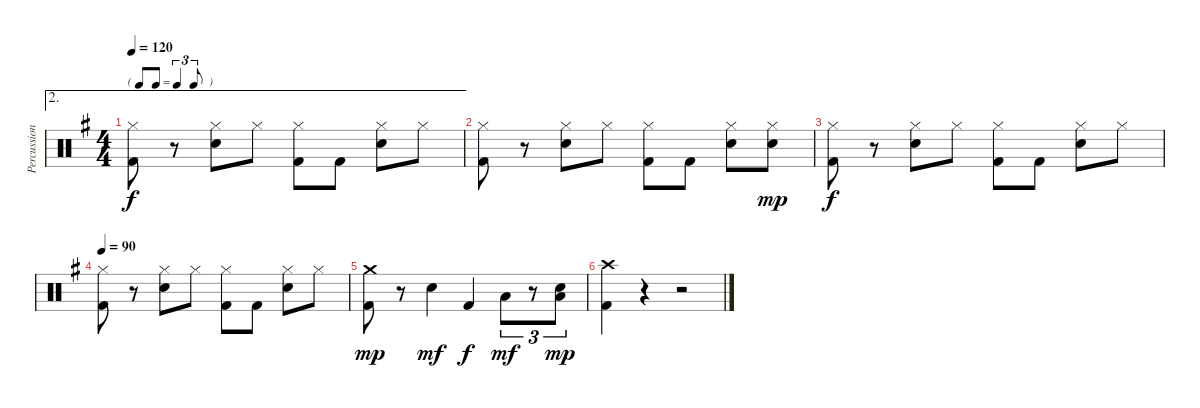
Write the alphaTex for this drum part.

\track ("Percussion" "Percussion") {instrument percussion}
\staff {score}
\articulation defaults
\ae 2
\ts (4 4)
\tf triplet8th
\tempo 120
\clef neutral
\ks g
("Hi-Hat (closed)" "Kick (hit) 2").8{dy f} r.8 ("Hi-Hat (closed)" "Electric Snare (hit)").8 "Hi-Hat (closed)".8 ("Hi-Hat (closed)" "Kick (hit) 2").8 "Kick (hit) 2".8 ("Hi-Hat (closed)" "Electric Snare (hit)").8 "Hi-Hat (closed)".8 |
("Hi-Hat (closed)" "Kick (hit) 2").8 r.8 ("Hi-Hat (closed)" "Electric Snare (hit)").8 "Hi-Hat (closed)".8 ("Hi-Hat (closed)" "Kick (hit) 2").8 "Kick (hit) 2".8 ("Hi-Hat (closed)" "Electric Snare (hit)").8 ("Hi-Hat (closed)" "Electric Snare (hit)").8{dy mp} |
("Hi-Hat (closed)" "Kick (hit) 2").8{dy f} r.8 ("Hi-Hat (closed)" "Electric Snare (hit)").8 "Hi-Hat (closed)".8 ("Hi-Hat (closed)" "Kick (hit) 2").8 "Kick (hit) 2".8 ("Hi-Hat (closed)" "Electric Snare (hit)").8 "Hi-Hat (closed)".8 |
\tempo 90
("Hi-Hat (closed)" "Kick (hit) 2").8 r.8 ("Hi-Hat (closed)" "Electric Snare (hit)").8 "Hi-Hat (closed)".8 ("Hi-Hat (closed)" "Kick (hit) 2").8 "Kick (hit) 2".8 ("Hi-Hat (closed)" "Electric Snare (hit)").8 "Hi-Hat (closed)".8 |
("Crash medium (hit)" "Kick (hit) 2").8{dy mp} r.8 "Electric Snare (hit)".4{dy mf} "Kick (hit) 2".4{dy f} "Low Tom (hit)".8{tu (3 2) dy mf} r.8{tu (3 2)} ("Low Tom (hit)" "Electric Snare (hit)").8{tu (3 2) dy mp} |
("Crash high (hit)" "Kick (hit) 2").4 r.4 r.2
